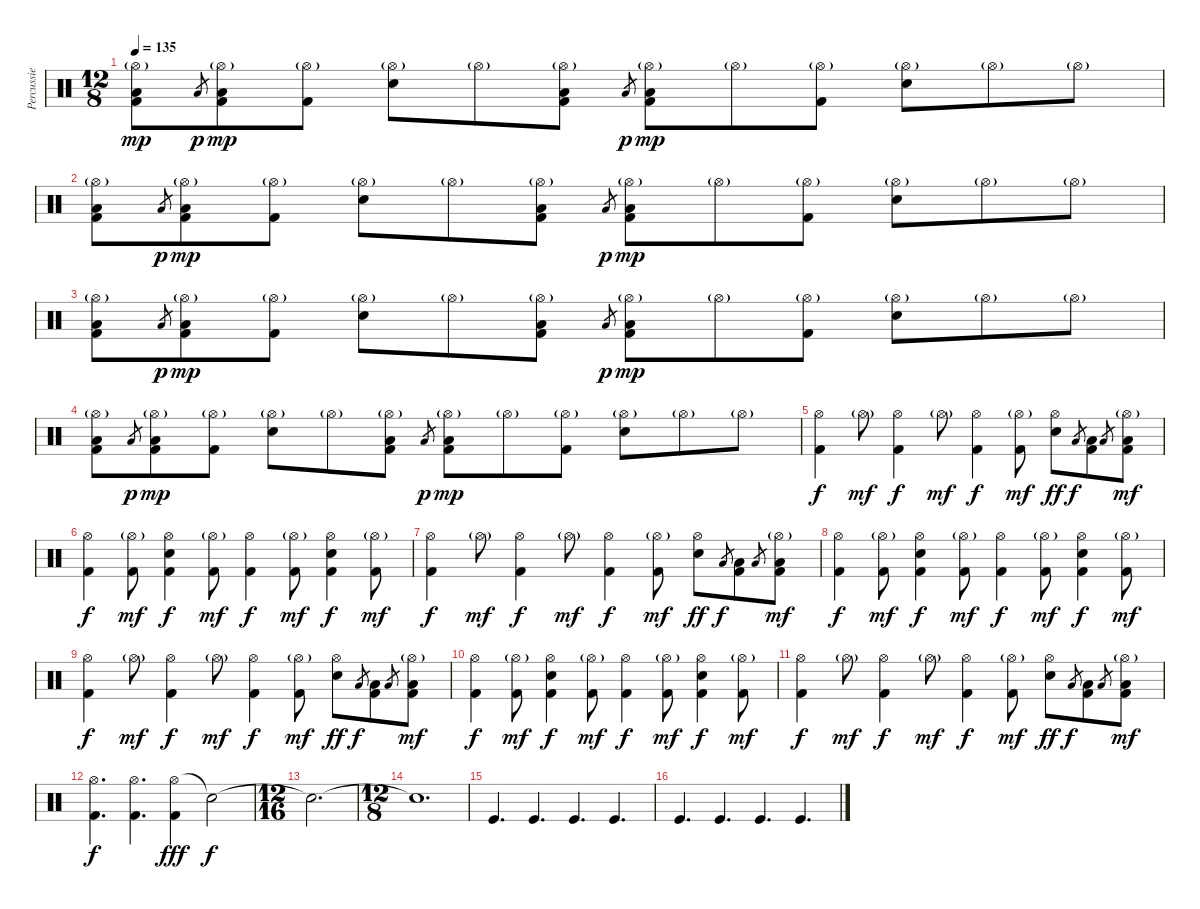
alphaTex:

\track ("Percussie" "Percussie") {instrument percussion}
\staff {score}
\articulation defaults
\ts (12 8)
\tempo 135
\clef neutral
\ks c
("Hi-Hat (open)"{g} "Low Tom (hit)" "Kick (hit) 2").8{dy mp} "Low Tom (hit)".8{gr dy p} ("Hi-Hat (open)"{g} "Low Tom (hit)" "Kick (hit) 2").8{dy mp} ("Hi-Hat (open)"{g} "Kick (hit) 2").8 ("Hi-Hat (open)"{g} "Electric Snare (hit)").8 "Hi-Hat (open)"{g}.8 ("Hi-Hat (open)"{g} "Low Tom (hit)" "Kick (hit) 2").8 "Low Tom (hit)".8{gr dy p} ("Hi-Hat (open)"{g} "Low Tom (hit)" "Kick (hit) 2").8{dy mp} "Hi-Hat (open)"{g}.8 ("Hi-Hat (open)"{g} "Kick (hit) 2").8 ("Hi-Hat (open)"{g} "Electric Snare (hit)").8 "Hi-Hat (open)"{g}.8 "Hi-Hat (open)"{g}.8 |
("Hi-Hat (open)"{g} "Low Tom (hit)" "Kick (hit) 2").8 "Low Tom (hit)".8{gr dy p} ("Hi-Hat (open)"{g} "Low Tom (hit)" "Kick (hit) 2").8{dy mp} ("Hi-Hat (open)"{g} "Kick (hit) 2").8 ("Hi-Hat (open)"{g} "Electric Snare (hit)").8 "Hi-Hat (open)"{g}.8 ("Hi-Hat (open)"{g} "Low Tom (hit)" "Kick (hit) 2").8 "Low Tom (hit)".8{gr dy p} ("Hi-Hat (open)"{g} "Low Tom (hit)" "Kick (hit) 2").8{dy mp} "Hi-Hat (open)"{g}.8 ("Hi-Hat (open)"{g} "Kick (hit) 2").8 ("Hi-Hat (open)"{g} "Electric Snare (hit)").8 "Hi-Hat (open)"{g}.8 "Hi-Hat (open)"{g}.8 |
("Hi-Hat (open)"{g} "Low Tom (hit)" "Kick (hit) 2").8 "Low Tom (hit)".8{gr dy p} ("Hi-Hat (open)"{g} "Low Tom (hit)" "Kick (hit) 2").8{dy mp} ("Hi-Hat (open)"{g} "Kick (hit) 2").8 ("Hi-Hat (open)"{g} "Electric Snare (hit)").8 "Hi-Hat (open)"{g}.8 ("Hi-Hat (open)"{g} "Low Tom (hit)" "Kick (hit) 2").8 "Low Tom (hit)".8{gr dy p} ("Hi-Hat (open)"{g} "Low Tom (hit)" "Kick (hit) 2").8{dy mp} "Hi-Hat (open)"{g}.8 ("Hi-Hat (open)"{g} "Kick (hit) 2").8 ("Hi-Hat (open)"{g} "Electric Snare (hit)").8 "Hi-Hat (open)"{g}.8 "Hi-Hat (open)"{g}.8 |
("Hi-Hat (open)"{g} "Low Tom (hit)" "Kick (hit) 2").8 "Low Tom (hit)".8{gr dy p} ("Hi-Hat (open)"{g} "Low Tom (hit)" "Kick (hit) 2").8{dy mp} ("Hi-Hat (open)"{g} "Kick (hit) 2").8 ("Hi-Hat (open)"{g} "Electric Snare (hit)").8 "Hi-Hat (open)"{g}.8 ("Hi-Hat (open)"{g} "Low Tom (hit)" "Kick (hit) 2").8 "Low Tom (hit)".8{gr dy p} ("Hi-Hat (open)"{g} "Low Tom (hit)" "Kick (hit) 2").8{dy mp} "Hi-Hat (open)"{g}.8 ("Hi-Hat (open)"{g} "Kick (hit) 2").8 ("Hi-Hat (open)"{g} "Electric Snare (hit)").8 "Hi-Hat (open)"{g}.8 "Hi-Hat (open)"{g}.8 |
("Hi-Hat (open)" "Kick (hit) 2").4{dy f} "Hi-Hat (open)"{g}.8{dy mf} ("Hi-Hat (open)" "Kick (hit) 2").4{dy f} "Hi-Hat (open)"{g}.8{dy mf} ("Hi-Hat (open)" "Kick (hit) 2").4{dy f} ("Hi-Hat (open)"{g} "Kick (hit) 2").8{dy mf} ("Hi-Hat (open)" "Electric Snare (hit)").8{dy ff} "Low Tom (hit)".8{gr dy f} ("Low Tom (hit)" "Kick (hit) 2").8 "Low Tom (hit)".8{gr} ("Hi-Hat (open)"{g} "Low Tom (hit)" "Kick (hit) 2").8{dy mf} |
("Hi-Hat (open)" "Kick (hit) 2").4{dy f} ("Hi-Hat (open)"{g} "Kick (hit) 2").8{dy mf} ("Hi-Hat (open)" "Electric Snare (hit)" "Kick (hit) 2").4{dy f} ("Hi-Hat (open)"{g} "Kick (hit) 2").8{dy mf} ("Hi-Hat (open)" "Kick (hit) 2").4{dy f} ("Hi-Hat (open)"{g} "Kick (hit) 2").8{dy mf} ("Hi-Hat (open)" "Electric Snare (hit)" "Kick (hit) 2").4{dy f} ("Hi-Hat (open)"{g} "Kick (hit) 2").8{dy mf} |
("Hi-Hat (open)" "Kick (hit) 2").4{dy f} "Hi-Hat (open)"{g}.8{dy mf} ("Hi-Hat (open)" "Kick (hit) 2").4{dy f} "Hi-Hat (open)"{g}.8{dy mf} ("Hi-Hat (open)" "Kick (hit) 2").4{dy f} ("Hi-Hat (open)"{g} "Kick (hit) 2").8{dy mf} ("Hi-Hat (open)" "Electric Snare (hit)").8{dy ff} "Low Tom (hit)".8{gr dy f} ("Low Tom (hit)" "Kick (hit) 2").8 "Low Tom (hit)".8{gr} ("Hi-Hat (open)"{g} "Low Tom (hit)" "Kick (hit) 2").8{dy mf} |
("Hi-Hat (open)" "Kick (hit) 2").4{dy f} ("Hi-Hat (open)"{g} "Kick (hit) 2").8{dy mf} ("Hi-Hat (open)" "Electric Snare (hit)" "Kick (hit) 2").4{dy f} ("Hi-Hat (open)"{g} "Kick (hit) 2").8{dy mf} ("Hi-Hat (open)" "Kick (hit) 2").4{dy f} ("Hi-Hat (open)"{g} "Kick (hit) 2").8{dy mf} ("Hi-Hat (open)" "Electric Snare (hit)" "Kick (hit) 2").4{dy f} ("Hi-Hat (open)"{g} "Kick (hit) 2").8{dy mf} |
("Hi-Hat (open)" "Kick (hit) 2").4{dy f} "Hi-Hat (open)"{g}.8{dy mf} ("Hi-Hat (open)" "Kick (hit) 2").4{dy f} "Hi-Hat (open)"{g}.8{dy mf} ("Hi-Hat (open)" "Kick (hit) 2").4{dy f} ("Hi-Hat (open)"{g} "Kick (hit) 2").8{dy mf} ("Hi-Hat (open)" "Electric Snare (hit)").8{dy ff} "Low Tom (hit)".8{gr dy f} ("Low Tom (hit)" "Kick (hit) 2").8 "Low Tom (hit)".8{gr} ("Hi-Hat (open)"{g} "Low Tom (hit)" "Kick (hit) 2").8{dy mf} |
("Hi-Hat (open)" "Kick (hit) 2").4{dy f} ("Hi-Hat (open)"{g} "Kick (hit) 2").8{dy mf} ("Hi-Hat (open)" "Electric Snare (hit)" "Kick (hit) 2").4{dy f} ("Hi-Hat (open)"{g} "Kick (hit) 2").8{dy mf} ("Hi-Hat (open)" "Kick (hit) 2").4{dy f} ("Hi-Hat (open)"{g} "Kick (hit) 2").8{dy mf} ("Hi-Hat (open)" "Electric Snare (hit)" "Kick (hit) 2").4{dy f} ("Hi-Hat (open)"{g} "Kick (hit) 2").8{dy mf} |
("Hi-Hat (open)" "Kick (hit) 2").4{dy f} "Hi-Hat (open)"{g}.8{dy mf} ("Hi-Hat (open)" "Kick (hit) 2").4{dy f} "Hi-Hat (open)"{g}.8{dy mf} ("Hi-Hat (open)" "Kick (hit) 2").4{dy f} ("Hi-Hat (open)"{g} "Kick (hit) 2").8{dy mf} ("Hi-Hat (open)" "Electric Snare (hit)").8{dy ff} "Low Tom (hit)".8{gr dy f} ("Low Tom (hit)" "Kick (hit) 2").8 "Low Tom (hit)".8{gr} ("Hi-Hat (open)"{g} "Low Tom (hit)" "Kick (hit) 2").8{dy mf} |
("Hi-Hat (open)" "Kick (hit) 2").4{d dy f} ("Hi-Hat (open)" "Kick (hit) 2").4{d} ("Hi-Hat (open)" "Kick (hit) 2").4{dy fff} "Snare (hit)"{t}.2{dy f} |
\ts (12 16)
"Snare (hit)"{t}.2{d} |
\ts (12 8)
"Snare (hit)"{t}.1{d} |
"Kick (hit)".4{d} "Kick (hit)".4{d} "Kick (hit)".4{d} "Kick (hit)".4{d} |
"Kick (hit)".4{d} "Kick (hit)".4{d} "Kick (hit)".4{d} "Kick (hit)".4{d}
